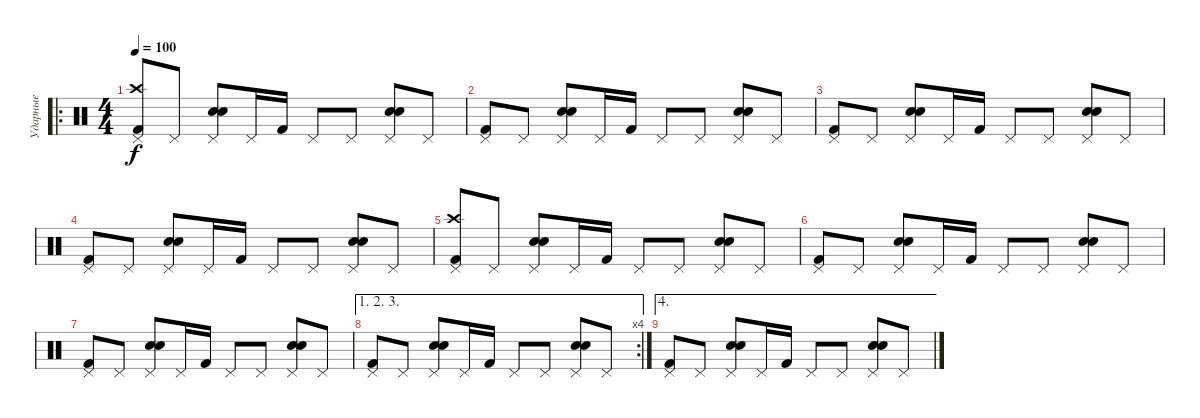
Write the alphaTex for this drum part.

\track ("Ударные" "Ударные") {instrument percussion}
\staff {score}
\articulation defaults
\ro
\ts (4 4)
\tempo 100
\clef neutral
\ks c
("Kick (hit) 2" "Crash high (hit)" "Pedal Hi-Hat (hit)").8{dy f} "Pedal Hi-Hat (hit)".8 ("Hand Clap (hit)" "Electric Snare (hit)" "Pedal Hi-Hat (hit)").8 "Pedal Hi-Hat (hit)".16 "Kick (hit) 2".16 "Pedal Hi-Hat (hit)".8 "Pedal Hi-Hat (hit)".8 ("Hand Clap (hit)" "Electric Snare (hit)" "Pedal Hi-Hat (hit)").8 "Pedal Hi-Hat (hit)".8 |
("Kick (hit) 2" "Pedal Hi-Hat (hit)").8 "Pedal Hi-Hat (hit)".8 ("Hand Clap (hit)" "Electric Snare (hit)" "Pedal Hi-Hat (hit)").8 "Pedal Hi-Hat (hit)".16 "Kick (hit) 2".16 "Pedal Hi-Hat (hit)".8 "Pedal Hi-Hat (hit)".8 ("Hand Clap (hit)" "Electric Snare (hit)" "Pedal Hi-Hat (hit)").8 "Pedal Hi-Hat (hit)".8 |
("Kick (hit) 2" "Pedal Hi-Hat (hit)").8 "Pedal Hi-Hat (hit)".8 ("Hand Clap (hit)" "Electric Snare (hit)" "Pedal Hi-Hat (hit)").8 "Pedal Hi-Hat (hit)".16 "Kick (hit) 2".16 "Pedal Hi-Hat (hit)".8 "Pedal Hi-Hat (hit)".8 ("Hand Clap (hit)" "Electric Snare (hit)" "Pedal Hi-Hat (hit)").8 "Pedal Hi-Hat (hit)".8 |
("Kick (hit) 2" "Pedal Hi-Hat (hit)").8 "Pedal Hi-Hat (hit)".8 ("Hand Clap (hit)" "Electric Snare (hit)" "Pedal Hi-Hat (hit)").8 "Pedal Hi-Hat (hit)".16 "Kick (hit) 2".16 "Pedal Hi-Hat (hit)".8 "Pedal Hi-Hat (hit)".8 ("Hand Clap (hit)" "Electric Snare (hit)" "Pedal Hi-Hat (hit)").8 "Pedal Hi-Hat (hit)".8 |
("Kick (hit) 2" "Crash high (hit)" "Pedal Hi-Hat (hit)").8 "Pedal Hi-Hat (hit)".8 ("Hand Clap (hit)" "Electric Snare (hit)" "Pedal Hi-Hat (hit)").8 "Pedal Hi-Hat (hit)".16 "Kick (hit) 2".16 "Pedal Hi-Hat (hit)".8 "Pedal Hi-Hat (hit)".8 ("Hand Clap (hit)" "Electric Snare (hit)" "Pedal Hi-Hat (hit)").8 "Pedal Hi-Hat (hit)".8 |
("Kick (hit) 2" "Pedal Hi-Hat (hit)").8 "Pedal Hi-Hat (hit)".8 ("Hand Clap (hit)" "Electric Snare (hit)" "Pedal Hi-Hat (hit)").8 "Pedal Hi-Hat (hit)".16 "Kick (hit) 2".16 "Pedal Hi-Hat (hit)".8 "Pedal Hi-Hat (hit)".8 ("Hand Clap (hit)" "Electric Snare (hit)" "Pedal Hi-Hat (hit)").8 "Pedal Hi-Hat (hit)".8 |
("Kick (hit) 2" "Pedal Hi-Hat (hit)").8 "Pedal Hi-Hat (hit)".8 ("Hand Clap (hit)" "Electric Snare (hit)" "Pedal Hi-Hat (hit)").8 "Pedal Hi-Hat (hit)".16 "Kick (hit) 2".16 "Pedal Hi-Hat (hit)".8 "Pedal Hi-Hat (hit)".8 ("Hand Clap (hit)" "Electric Snare (hit)" "Pedal Hi-Hat (hit)").8 "Pedal Hi-Hat (hit)".8 |
\ae (1 2 3)
\rc 4
("Kick (hit) 2" "Pedal Hi-Hat (hit)").8 "Pedal Hi-Hat (hit)".8 ("Hand Clap (hit)" "Electric Snare (hit)" "Pedal Hi-Hat (hit)").8 "Pedal Hi-Hat (hit)".16 "Kick (hit) 2".16 "Pedal Hi-Hat (hit)".8 "Pedal Hi-Hat (hit)".8 ("Hand Clap (hit)" "Electric Snare (hit)" "Pedal Hi-Hat (hit)").8 "Pedal Hi-Hat (hit)".8 |
\ae 4
("Kick (hit) 2" "Pedal Hi-Hat (hit)").8 "Pedal Hi-Hat (hit)".8 ("Hand Clap (hit)" "Electric Snare (hit)" "Pedal Hi-Hat (hit)").8 "Pedal Hi-Hat (hit)".16 "Kick (hit) 2".16 "Pedal Hi-Hat (hit)".8 "Pedal Hi-Hat (hit)".8 ("Hand Clap (hit)" "Electric Snare (hit)" "Pedal Hi-Hat (hit)").8 "Pedal Hi-Hat (hit)".8
